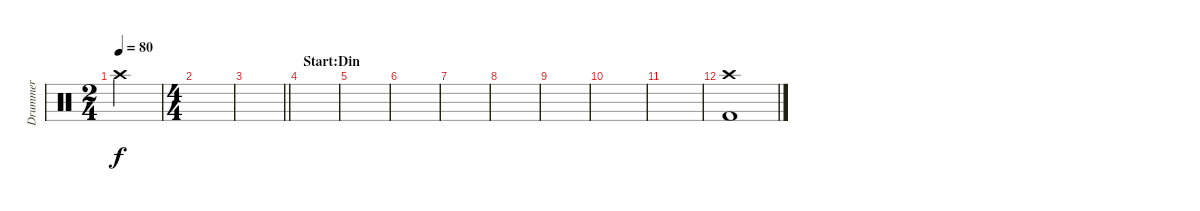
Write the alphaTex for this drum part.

\track ("Drummer" "Drummer") {instrument percussion}
\staff {score}
\articulation defaults
\ts (2 4)
\tempo 80
\clef neutral
\ks c "Crash high (hit)".2{dy f}
|
\ts (4 4)
|
\barLineRight lightlight
|
\section ("" "Start:Din")
|
|
|
|
|
|
|
|
("Crash high (hit)" "Kick (hit) 2").1
